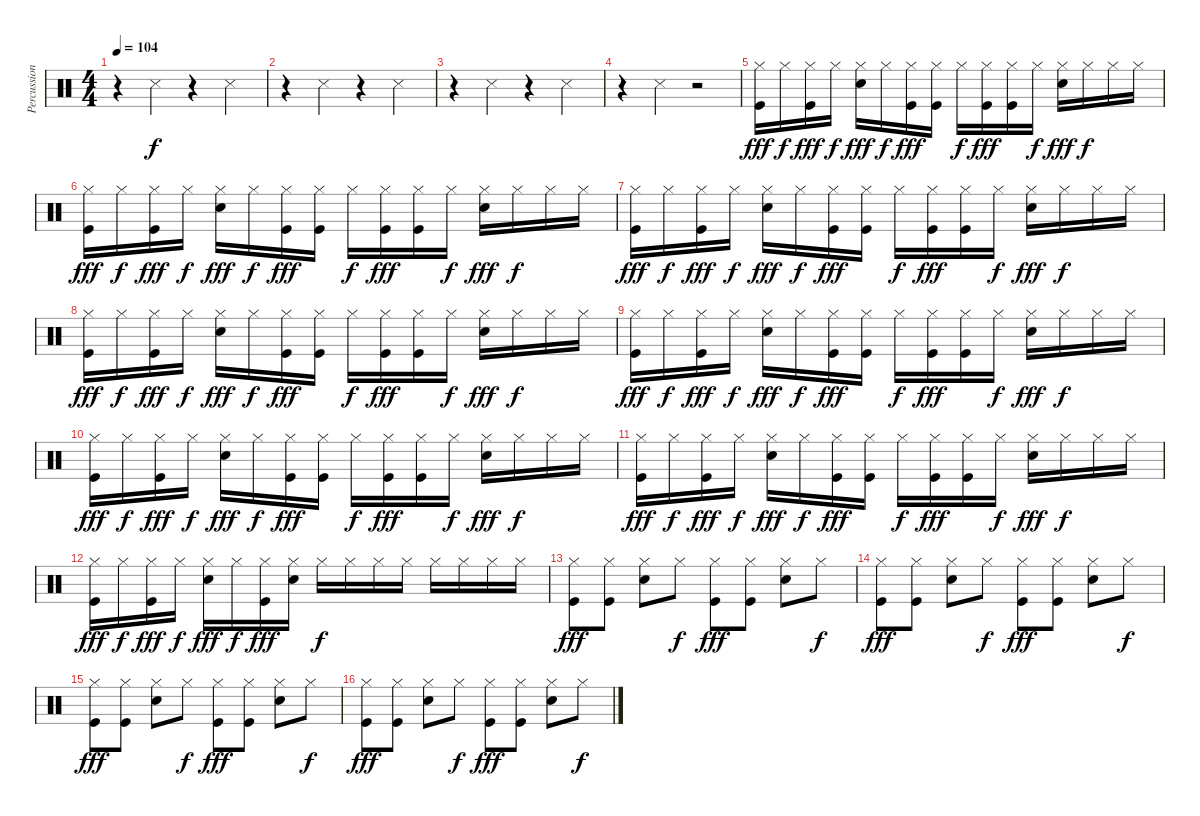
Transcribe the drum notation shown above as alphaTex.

\track ("Percussion" "Percussion") {instrument percussion}
\staff {score}
\articulation defaults
\ts (4 4)
\tempo 104
\clef neutral
\ks c
r.4{dy f} "Snare (side stick) 3".4 r.4 "Snare (side stick) 3".4 |
r.4 "Snare (side stick) 3".4 r.4 "Snare (side stick) 3".4 |
r.4 "Snare (side stick) 3".4 r.4 "Snare (side stick) 3".4 |
r.4 "Snare (side stick) 3".4 r.2 |
("Kick (hit)" "Hi-Hat (closed)").16{dy fff} "Hi-Hat (closed)".16{dy f} ("Kick (hit)" "Hi-Hat (closed)").16{dy fff} "Hi-Hat (closed)".16{dy f} ("Snare (hit) 2" "Hi-Hat (closed)").16{dy fff} "Hi-Hat (closed)".16{dy f} ("Kick (hit)" "Hi-Hat (closed)").16{dy fff} ("Kick (hit)" "Hi-Hat (closed)").16 "Hi-Hat (closed)".16{dy f} ("Kick (hit)" "Hi-Hat (closed)").16{dy fff} ("Kick (hit)" "Hi-Hat (closed)").16 "Hi-Hat (closed)".16{dy f} ("Snare (hit) 2" "Hi-Hat (closed)").16{dy fff} "Hi-Hat (closed)".16{dy f} "Hi-Hat (closed)".16 "Hi-Hat (closed)".16 |
("Kick (hit)" "Hi-Hat (closed)").16{dy fff} "Hi-Hat (closed)".16{dy f} ("Kick (hit)" "Hi-Hat (closed)").16{dy fff} "Hi-Hat (closed)".16{dy f} ("Snare (hit) 2" "Hi-Hat (closed)").16{dy fff} "Hi-Hat (closed)".16{dy f} ("Kick (hit)" "Hi-Hat (closed)").16{dy fff} ("Kick (hit)" "Hi-Hat (closed)").16 "Hi-Hat (closed)".16{dy f} ("Kick (hit)" "Hi-Hat (closed)").16{dy fff} ("Kick (hit)" "Hi-Hat (closed)").16 "Hi-Hat (closed)".16{dy f} ("Snare (hit) 2" "Hi-Hat (closed)").16{dy fff} "Hi-Hat (closed)".16{dy f} "Hi-Hat (closed)".16 "Hi-Hat (closed)".16 |
("Kick (hit)" "Hi-Hat (closed)").16{dy fff} "Hi-Hat (closed)".16{dy f} ("Kick (hit)" "Hi-Hat (closed)").16{dy fff} "Hi-Hat (closed)".16{dy f} ("Snare (hit) 2" "Hi-Hat (closed)").16{dy fff} "Hi-Hat (closed)".16{dy f} ("Kick (hit)" "Hi-Hat (closed)").16{dy fff} ("Kick (hit)" "Hi-Hat (closed)").16 "Hi-Hat (closed)".16{dy f} ("Kick (hit)" "Hi-Hat (closed)").16{dy fff} ("Kick (hit)" "Hi-Hat (closed)").16 "Hi-Hat (closed)".16{dy f} ("Snare (hit) 2" "Hi-Hat (closed)").16{dy fff} "Hi-Hat (closed)".16{dy f} "Hi-Hat (closed)".16 "Hi-Hat (closed)".16 |
("Kick (hit)" "Hi-Hat (closed)").16{dy fff} "Hi-Hat (closed)".16{dy f} ("Kick (hit)" "Hi-Hat (closed)").16{dy fff} "Hi-Hat (closed)".16{dy f} ("Snare (hit) 2" "Hi-Hat (closed)").16{dy fff} "Hi-Hat (closed)".16{dy f} ("Kick (hit)" "Hi-Hat (closed)").16{dy fff} ("Kick (hit)" "Hi-Hat (closed)").16 "Hi-Hat (closed)".16{dy f} ("Kick (hit)" "Hi-Hat (closed)").16{dy fff} ("Kick (hit)" "Hi-Hat (closed)").16 "Hi-Hat (closed)".16{dy f} ("Snare (hit) 2" "Hi-Hat (closed)").16{dy fff} "Hi-Hat (closed)".16{dy f} "Hi-Hat (closed)".16 "Hi-Hat (closed)".16 |
("Kick (hit)" "Hi-Hat (closed)").16{dy fff} "Hi-Hat (closed)".16{dy f} ("Kick (hit)" "Hi-Hat (closed)").16{dy fff} "Hi-Hat (closed)".16{dy f} ("Snare (hit) 2" "Hi-Hat (closed)").16{dy fff} "Hi-Hat (closed)".16{dy f} ("Kick (hit)" "Hi-Hat (closed)").16{dy fff} ("Kick (hit)" "Hi-Hat (closed)").16 "Hi-Hat (closed)".16{dy f} ("Kick (hit)" "Hi-Hat (closed)").16{dy fff} ("Kick (hit)" "Hi-Hat (closed)").16 "Hi-Hat (closed)".16{dy f} ("Snare (hit) 2" "Hi-Hat (closed)").16{dy fff} "Hi-Hat (closed)".16{dy f} "Hi-Hat (closed)".16 "Hi-Hat (closed)".16 |
("Kick (hit)" "Hi-Hat (closed)").16{dy fff} "Hi-Hat (closed)".16{dy f} ("Kick (hit)" "Hi-Hat (closed)").16{dy fff} "Hi-Hat (closed)".16{dy f} ("Snare (hit) 2" "Hi-Hat (closed)").16{dy fff} "Hi-Hat (closed)".16{dy f} ("Kick (hit)" "Hi-Hat (closed)").16{dy fff} ("Kick (hit)" "Hi-Hat (closed)").16 "Hi-Hat (closed)".16{dy f} ("Kick (hit)" "Hi-Hat (closed)").16{dy fff} ("Kick (hit)" "Hi-Hat (closed)").16 "Hi-Hat (closed)".16{dy f} ("Snare (hit) 2" "Hi-Hat (closed)").16{dy fff} "Hi-Hat (closed)".16{dy f} "Hi-Hat (closed)".16 "Hi-Hat (closed)".16 |
("Kick (hit)" "Hi-Hat (closed)").16{dy fff} "Hi-Hat (closed)".16{dy f} ("Kick (hit)" "Hi-Hat (closed)").16{dy fff} "Hi-Hat (closed)".16{dy f} ("Snare (hit) 2" "Hi-Hat (closed)").16{dy fff} "Hi-Hat (closed)".16{dy f} ("Kick (hit)" "Hi-Hat (closed)").16{dy fff} ("Kick (hit)" "Hi-Hat (closed)").16 "Hi-Hat (closed)".16{dy f} ("Kick (hit)" "Hi-Hat (closed)").16{dy fff} ("Kick (hit)" "Hi-Hat (closed)").16 "Hi-Hat (closed)".16{dy f} ("Snare (hit) 2" "Hi-Hat (closed)").16{dy fff} "Hi-Hat (closed)".16{dy f} "Hi-Hat (closed)".16 "Hi-Hat (closed)".16 |
("Kick (hit)" "Hi-Hat (closed)").16{dy fff} "Hi-Hat (closed)".16{dy f} ("Kick (hit)" "Hi-Hat (closed)").16{dy fff} "Hi-Hat (closed)".16{dy f} ("Snare (hit) 2" "Hi-Hat (closed)").16{dy fff} "Hi-Hat (closed)".16{dy f} ("Kick (hit)" "Hi-Hat (closed)").16{dy fff} ("Snare (hit) 2" "Hi-Hat (closed)").16 "Hi-Hat (closed)".16{dy f} "Hi-Hat (closed)".16 "Hi-Hat (closed)".16 "Hi-Hat (closed)".16 "Hi-Hat (closed)".16 "Hi-Hat (closed)".16 "Hi-Hat (closed)".16 "Hi-Hat (closed)".16 |
("Kick (hit)" "Hi-Hat (closed)").8{dy fff} ("Kick (hit)" "Hi-Hat (closed)").8 ("Snare (hit) 2" "Hi-Hat (closed)").8 "Hi-Hat (closed)".8{dy f} ("Kick (hit)" "Hi-Hat (closed)").8{dy fff} ("Kick (hit)" "Hi-Hat (closed)").8 ("Snare (hit) 2" "Hi-Hat (closed)").8 "Hi-Hat (closed)".8{dy f} |
("Kick (hit)" "Hi-Hat (closed)").8{dy fff} ("Kick (hit)" "Hi-Hat (closed)").8 ("Snare (hit) 2" "Hi-Hat (closed)").8 "Hi-Hat (closed)".8{dy f} ("Kick (hit)" "Hi-Hat (closed)").8{dy fff} ("Kick (hit)" "Hi-Hat (closed)").8 ("Snare (hit) 2" "Hi-Hat (closed)").8 "Hi-Hat (closed)".8{dy f} |
("Kick (hit)" "Hi-Hat (closed)").8{dy fff} ("Kick (hit)" "Hi-Hat (closed)").8 ("Snare (hit) 2" "Hi-Hat (closed)").8 "Hi-Hat (closed)".8{dy f} ("Kick (hit)" "Hi-Hat (closed)").8{dy fff} ("Kick (hit)" "Hi-Hat (closed)").8 ("Snare (hit) 2" "Hi-Hat (closed)").8 "Hi-Hat (closed)".8{dy f} |
("Kick (hit)" "Hi-Hat (closed)").8{dy fff} ("Kick (hit)" "Hi-Hat (closed)").8 ("Snare (hit) 2" "Hi-Hat (closed)").8 "Hi-Hat (closed)".8{dy f} ("Kick (hit)" "Hi-Hat (closed)").8{dy fff} ("Kick (hit)" "Hi-Hat (closed)").8 ("Snare (hit) 2" "Hi-Hat (closed)").8 "Hi-Hat (closed)".8{dy f}
